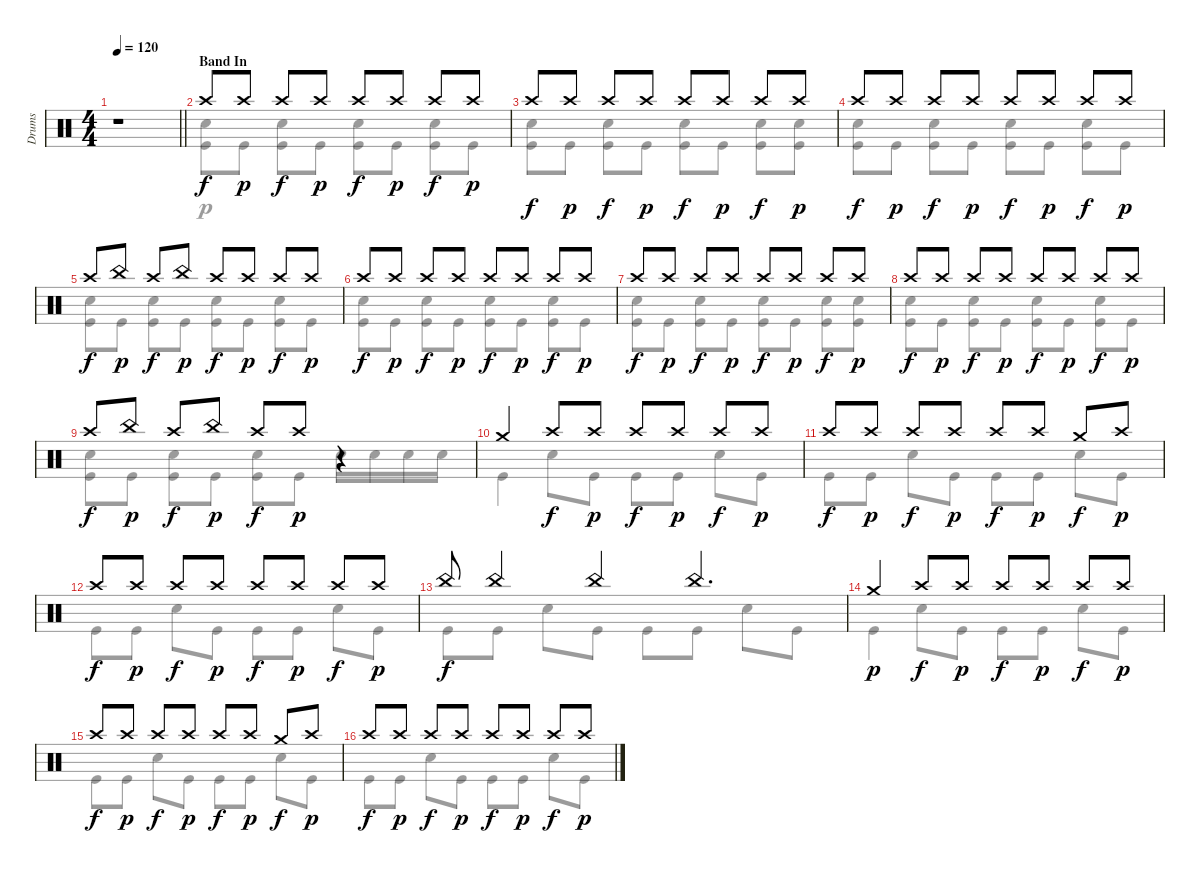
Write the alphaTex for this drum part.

\track ("Drums" "Drums") {instrument percussion}
\staff {score}
\articulation defaults
\voice
\ts (4 4)
\tempo 120
\clef neutral
\barLineRight lightlight
\ks c
r.1{dy f} |
\section ("" "Band In")
"Crash high (hit)".8 "Crash high (hit)".8{dy p} "Crash high (hit)".8{dy f} "Crash high (hit)".8{dy p} "Crash high (hit)".8{dy f} "Crash high (hit)".8{dy p} "Crash high (hit)".8{dy f} "Crash high (hit)".8{dy p} |
"Crash high (hit)".8{dy f} "Crash high (hit)".8{dy p} "Crash high (hit)".8{dy f} "Crash high (hit)".8{dy p} "Crash high (hit)".8{dy f} "Crash high (hit)".8{dy p} "Crash high (hit)".8{dy f} "Crash high (hit)".8{dy p} |
"Crash high (hit)".8{dy f} "Crash high (hit)".8{dy p} "Crash high (hit)".8{dy f} "Crash high (hit)".8{dy p} "Crash high (hit)".8{dy f} "Crash high (hit)".8{dy p} "Crash high (hit)".8{dy f} "Crash high (hit)".8{dy p} |
"Crash high (hit)".8{dy f} "China (hit)".8{dy p} "Crash high (hit)".8{dy f} "China (hit)".8{dy p} "Crash high (hit)".8{dy f} "Crash high (hit)".8{dy p} "Crash high (hit)".8{dy f} "Crash high (hit)".8{dy p} |
"Crash high (hit)".8{dy f} "Crash high (hit)".8{dy p} "Crash high (hit)".8{dy f} "Crash high (hit)".8{dy p} "Crash high (hit)".8{dy f} "Crash high (hit)".8{dy p} "Crash high (hit)".8{dy f} "Crash high (hit)".8{dy p} |
"Crash high (hit)".8{dy f} "Crash high (hit)".8{dy p} "Crash high (hit)".8{dy f} "Crash high (hit)".8{dy p} "Crash high (hit)".8{dy f} "Crash high (hit)".8{dy p} "Crash high (hit)".8{dy f} "Crash high (hit)".8{dy p} |
"Crash high (hit)".8{dy f} "Crash high (hit)".8{dy p} "Crash high (hit)".8{dy f} "Crash high (hit)".8{dy p} "Crash high (hit)".8{dy f} "Crash high (hit)".8{dy p} "Crash high (hit)".8{dy f} "Crash high (hit)".8{dy p} |
"Crash high (hit)".8{dy f} "China (hit)".8{dy p} "Crash high (hit)".8{dy f} "China (hit)".8{dy p} "Crash high (hit)".8{dy f} "Crash high (hit)".8{dy p} r.4 |
"Crash medium (hit)".4 "Crash high (hit)".8{dy f} "Crash high (hit)".8{dy p} "Crash high (hit)".8{dy f} "Crash high (hit)".8{dy p} "Crash high (hit)".8{dy f} "Crash high (hit)".8{dy p} |
"Crash high (hit)".8{dy f} "Crash high (hit)".8{dy p} "Crash high (hit)".8{dy f} "Crash high (hit)".8{dy p} "Crash high (hit)".8{dy f} "Crash high (hit)".8{dy p} "Crash medium (hit)".8{dy f} "Crash high (hit)".8{dy p} |
"Crash high (hit)".8{dy f} "Crash high (hit)".8{dy p} "Crash high (hit)".8{dy f} "Crash high (hit)".8{dy p} "Crash high (hit)".8{dy f} "Crash high (hit)".8{dy p} "Crash high (hit)".8{dy f} "Crash high (hit)".8{dy p} |
"China (hit)".8{dy f} "China (hit)".4 "China (hit)".4 "China (hit)".4{d} |
"Crash medium (hit)".4{dy p} "Crash high (hit)".8{dy f} "Crash high (hit)".8{dy p} "Crash high (hit)".8{dy f} "Crash high (hit)".8{dy p} "Crash high (hit)".8{dy f} "Crash high (hit)".8{dy p} |
"Crash high (hit)".8{dy f} "Crash high (hit)".8{dy p} "Crash high (hit)".8{dy f} "Crash high (hit)".8{dy p} "Crash high (hit)".8{dy f} "Crash high (hit)".8{dy p} "Crash medium (hit)".8{dy f} "Crash high (hit)".8{dy p} |
"Crash high (hit)".8{dy f} "Crash high (hit)".8{dy p} "Crash high (hit)".8{dy f} "Crash high (hit)".8{dy p} "Crash high (hit)".8{dy f} "Crash high (hit)".8{dy p} "Crash high (hit)".8{dy f} "Crash high (hit)".8{dy p}
\voice
\clef neutral
\ottava regular
\simile none
\barLineRight lightlight
\ks c
|
("Snare (hit) 2" "Kick (hit)").8 "Kick (hit)".8 ("Snare (hit) 2" "Kick (hit)").8 "Kick (hit)".8 ("Snare (hit) 2" "Kick (hit)").8 "Kick (hit)".8 ("Snare (hit) 2" "Kick (hit)").8 "Kick (hit)".8 |
("Snare (hit) 2" "Kick (hit)").8 "Kick (hit)".8 ("Snare (hit) 2" "Kick (hit)").8 "Kick (hit)".8 ("Snare (hit) 2" "Kick (hit)").8 "Kick (hit)".8 ("Snare (hit) 2" "Kick (hit)").8 ("Snare (hit) 2" "Kick (hit)").8 |
("Snare (hit) 2" "Kick (hit)").8 "Kick (hit)".8 ("Snare (hit) 2" "Kick (hit)").8 "Kick (hit)".8 ("Snare (hit) 2" "Kick (hit)").8 "Kick (hit)".8 ("Snare (hit) 2" "Kick (hit)").8 "Kick (hit)".8 |
("Snare (hit) 2" "Kick (hit)").8 "Kick (hit)".8 ("Snare (hit) 2" "Kick (hit)").8 "Kick (hit)".8 ("Snare (hit) 2" "Kick (hit)").8 "Kick (hit)".8 ("Snare (hit) 2" "Kick (hit)").8 "Kick (hit)".8 |
("Snare (hit) 2" "Kick (hit)").8 "Kick (hit)".8 ("Snare (hit) 2" "Kick (hit)").8 "Kick (hit)".8 ("Snare (hit) 2" "Kick (hit)").8 "Kick (hit)".8 ("Snare (hit) 2" "Kick (hit)").8 "Kick (hit)".8 |
("Snare (hit) 2" "Kick (hit)").8 "Kick (hit)".8 ("Snare (hit) 2" "Kick (hit)").8 "Kick (hit)".8 ("Snare (hit) 2" "Kick (hit)").8 "Kick (hit)".8 ("Snare (hit) 2" "Kick (hit)").8 ("Snare (hit) 2" "Kick (hit)").8 |
("Snare (hit) 2" "Kick (hit)").8 "Kick (hit)".8 ("Snare (hit) 2" "Kick (hit)").8 "Kick (hit)".8 ("Snare (hit) 2" "Kick (hit)").8 "Kick (hit)".8 ("Snare (hit) 2" "Kick (hit)").8 "Kick (hit)".8 |
("Snare (hit) 2" "Kick (hit)").8 "Kick (hit)".8 ("Snare (hit) 2" "Kick (hit)").8 "Kick (hit)".8 ("Snare (hit) 2" "Kick (hit)").8 "Kick (hit)".8 "Snare (hit) 2".16 "Snare (hit) 2".16 "Snare (hit) 2".16 "Snare (hit) 2".16 |
"Kick (hit)".4 "Snare (hit) 2".8 "Kick (hit)".8 "Kick (hit)".8 "Kick (hit)".8 "Snare (hit) 2".8 "Kick (hit)".8 |
"Kick (hit)".8 "Kick (hit)".8 "Snare (hit) 2".8 "Kick (hit)".8 "Kick (hit)".8 "Kick (hit)".8 "Snare (hit) 2".8 "Kick (hit)".8 |
"Kick (hit)".8 "Kick (hit)".8 "Snare (hit) 2".8 "Kick (hit)".8 "Kick (hit)".8 "Kick (hit)".8 "Snare (hit) 2".8 "Kick (hit)".8 |
"Kick (hit)".8 "Kick (hit)".8 "Snare (hit) 2".8 "Kick (hit)".8 "Kick (hit)".8 "Kick (hit)".8 "Snare (hit) 2".8 "Kick (hit)".8 |
"Kick (hit)".4 "Snare (hit) 2".8 "Kick (hit)".8 "Kick (hit)".8 "Kick (hit)".8 "Snare (hit) 2".8 "Kick (hit)".8 |
"Kick (hit)".8 "Kick (hit)".8 "Snare (hit) 2".8 "Kick (hit)".8 "Kick (hit)".8 "Kick (hit)".8 "Snare (hit) 2".8 "Kick (hit)".8 |
"Kick (hit)".8 "Kick (hit)".8 "Snare (hit) 2".8 "Kick (hit)".8 "Kick (hit)".8 "Kick (hit)".8 "Snare (hit) 2".8 "Kick (hit)".8
